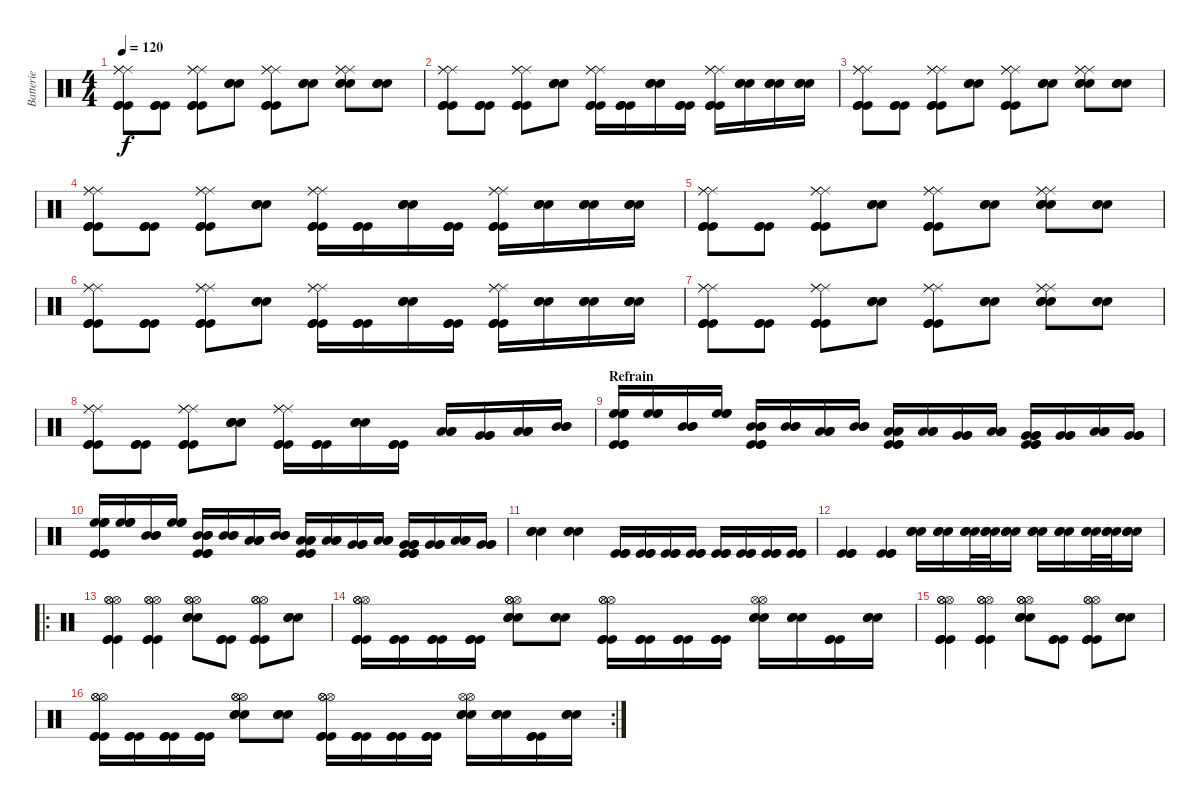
\track ("Batterie" "Batterie") {instrument percussion}
\staff {score}
\articulation defaults
\ts (4 4)
\tempo 120
\clef neutral
\ks c
("Ride (middle)" "Ride (middle)" "Ride (middle)" "Kick (hit)" "Kick (hit)" "Kick (hit)").8{dy f} ("Kick (hit)" "Kick (hit)" "Kick (hit)").8 ("Ride (middle)" "Kick (hit)" "Kick (hit)" "Kick (hit)" "Ride (middle)" "Ride (middle)").8 ("Snare (hit) 2" "Snare (hit) 2" "Snare (hit) 2").8 ("Kick (hit)" "Kick (hit)" "Kick (hit)" "Ride (middle)" "Ride (middle)" "Ride (middle)").8 ("Snare (hit) 2" "Snare (hit) 2" "Snare (hit) 2").8 ("Ride (middle)" "Ride (middle)" "Ride (middle)" "Snare (hit) 2" "Snare (hit) 2" "Snare (hit) 2").8 ("Snare (hit) 2" "Snare (hit) 2" "Snare (hit) 2").8 |
("Ride (middle)" "Ride (middle)" "Ride (middle)" "Kick (hit)" "Kick (hit)" "Kick (hit)").8 ("Kick (hit)" "Kick (hit)" "Kick (hit)").8 ("Ride (middle)" "Kick (hit)" "Kick (hit)" "Kick (hit)" "Ride (middle)" "Ride (middle)").8 ("Snare (hit) 2" "Snare (hit) 2" "Snare (hit) 2").8 ("Kick (hit)" "Kick (hit)" "Kick (hit)" "Ride (middle)" "Ride (middle)" "Ride (middle)").16 ("Kick (hit)" "Kick (hit)" "Kick (hit)").16 ("Snare (hit) 2" "Snare (hit) 2" "Snare (hit) 2").16 ("Kick (hit)" "Kick (hit)" "Kick (hit)").16 ("Ride (middle)" "Ride (middle)" "Ride (middle)" "Kick (hit)" "Kick (hit)" "Kick (hit)").16 ("Snare (hit) 2" "Snare (hit) 2" "Snare (hit) 2").16 ("Snare (hit) 2" "Snare (hit) 2" "Snare (hit) 2").16 ("Snare (hit) 2" "Snare (hit) 2" "Snare (hit) 2").16 |
("Ride (middle)" "Ride (middle)" "Ride (middle)" "Kick (hit)" "Kick (hit)" "Kick (hit)").8 ("Kick (hit)" "Kick (hit)" "Kick (hit)").8 ("Ride (middle)" "Kick (hit)" "Kick (hit)" "Kick (hit)" "Ride (middle)" "Ride (middle)").8 ("Snare (hit) 2" "Snare (hit) 2" "Snare (hit) 2").8 ("Kick (hit)" "Kick (hit)" "Kick (hit)" "Ride (middle)" "Ride (middle)" "Ride (middle)").8 ("Snare (hit) 2" "Snare (hit) 2" "Snare (hit) 2").8 ("Ride (middle)" "Ride (middle)" "Ride (middle)" "Snare (hit) 2" "Snare (hit) 2" "Snare (hit) 2").8 ("Snare (hit) 2" "Snare (hit) 2" "Snare (hit) 2").8 |
("Ride (middle)" "Ride (middle)" "Ride (middle)" "Kick (hit)" "Kick (hit)" "Kick (hit)").8 ("Kick (hit)" "Kick (hit)" "Kick (hit)").8 ("Ride (middle)" "Kick (hit)" "Kick (hit)" "Kick (hit)" "Ride (middle)" "Ride (middle)").8 ("Snare (hit) 2" "Snare (hit) 2" "Snare (hit) 2").8 ("Kick (hit)" "Kick (hit)" "Kick (hit)" "Ride (middle)" "Ride (middle)" "Ride (middle)").16 ("Kick (hit)" "Kick (hit)" "Kick (hit)").16 ("Snare (hit) 2" "Snare (hit) 2" "Snare (hit) 2").16 ("Kick (hit)" "Kick (hit)" "Kick (hit)").16 ("Ride (middle)" "Ride (middle)" "Ride (middle)" "Kick (hit)" "Kick (hit)" "Kick (hit)").16 ("Snare (hit) 2" "Snare (hit) 2" "Snare (hit) 2").16 ("Snare (hit) 2" "Snare (hit) 2" "Snare (hit) 2").16 ("Snare (hit) 2" "Snare (hit) 2" "Snare (hit) 2").16 |
("Ride (middle)" "Ride (middle)" "Ride (middle)" "Kick (hit)" "Kick (hit)" "Kick (hit)").8 ("Kick (hit)" "Kick (hit)" "Kick (hit)").8 ("Ride (middle)" "Kick (hit)" "Kick (hit)" "Kick (hit)" "Ride (middle)" "Ride (middle)").8 ("Snare (hit) 2" "Snare (hit) 2" "Snare (hit) 2").8 ("Kick (hit)" "Kick (hit)" "Kick (hit)" "Ride (middle)" "Ride (middle)" "Ride (middle)").8 ("Snare (hit) 2" "Snare (hit) 2" "Snare (hit) 2").8 ("Ride (middle)" "Ride (middle)" "Ride (middle)" "Snare (hit) 2" "Snare (hit) 2" "Snare (hit) 2").8 ("Snare (hit) 2" "Snare (hit) 2" "Snare (hit) 2").8 |
("Ride (middle)" "Ride (middle)" "Ride (middle)" "Kick (hit)" "Kick (hit)" "Kick (hit)").8 ("Kick (hit)" "Kick (hit)" "Kick (hit)").8 ("Ride (middle)" "Kick (hit)" "Kick (hit)" "Kick (hit)" "Ride (middle)" "Ride (middle)").8 ("Snare (hit) 2" "Snare (hit) 2" "Snare (hit) 2").8 ("Kick (hit)" "Kick (hit)" "Kick (hit)" "Ride (middle)" "Ride (middle)" "Ride (middle)").16 ("Kick (hit)" "Kick (hit)" "Kick (hit)").16 ("Snare (hit) 2" "Snare (hit) 2" "Snare (hit) 2").16 ("Kick (hit)" "Kick (hit)" "Kick (hit)").16 ("Ride (middle)" "Ride (middle)" "Ride (middle)" "Kick (hit)" "Kick (hit)" "Kick (hit)").16 ("Snare (hit) 2" "Snare (hit) 2" "Snare (hit) 2").16 ("Snare (hit) 2" "Snare (hit) 2" "Snare (hit) 2").16 ("Snare (hit) 2" "Snare (hit) 2" "Snare (hit) 2").16 |
("Ride (middle)" "Ride (middle)" "Ride (middle)" "Kick (hit)" "Kick (hit)" "Kick (hit)").8 ("Kick (hit)" "Kick (hit)" "Kick (hit)").8 ("Ride (middle)" "Kick (hit)" "Kick (hit)" "Kick (hit)" "Ride (middle)" "Ride (middle)").8 ("Snare (hit) 2" "Snare (hit) 2" "Snare (hit) 2").8 ("Kick (hit)" "Kick (hit)" "Kick (hit)" "Ride (middle)" "Ride (middle)" "Ride (middle)").8 ("Snare (hit) 2" "Snare (hit) 2" "Snare (hit) 2").8 ("Ride (middle)" "Ride (middle)" "Ride (middle)" "Snare (hit) 2" "Snare (hit) 2" "Snare (hit) 2").8 ("Snare (hit) 2" "Snare (hit) 2" "Snare (hit) 2").8 |
("Ride (middle)" "Ride (middle)" "Ride (middle)" "Kick (hit)" "Kick (hit)" "Kick (hit)").8 ("Kick (hit)" "Kick (hit)" "Kick (hit)").8 ("Ride (middle)" "Kick (hit)" "Kick (hit)" "Kick (hit)" "Ride (middle)" "Ride (middle)").8 ("Snare (hit) 2" "Snare (hit) 2" "Snare (hit) 2").8 ("Kick (hit)" "Kick (hit)" "Kick (hit)" "Ride (middle)" "Ride (middle)" "Ride (middle)").16 ("Kick (hit)" "Kick (hit)" "Kick (hit)").16 ("Snare (hit) 2" "Snare (hit) 2" "Snare (hit) 2").16 ("Kick (hit)" "Kick (hit)" "Kick (hit)").16 ("Low Floor Tom (hit)" "Low Floor Tom (hit)" "Low Floor Tom (hit)").16 ("Very Low Tom (hit)" "Very Low Tom (hit)" "Very Low Tom (hit)").16 ("Low Tom (hit)" "Low Tom (hit)" "Low Tom (hit)").16 ("Mid Tom (hit)" "Mid Tom (hit)" "Mid Tom (hit)").16 |
\section ("" "Refrain")
("Kick (hit)" "Kick (hit)" "Kick (hit)" "High Floor Tom (hit)" "High Floor Tom (hit)" "High Floor Tom (hit)").16 ("High Floor Tom (hit)" "High Floor Tom (hit)" "High Floor Tom (hit)").16 ("Mid Tom (hit)" "Mid Tom (hit)" "Mid Tom (hit)").16 ("High Floor Tom (hit)" "High Floor Tom (hit)" "High Floor Tom (hit)").16 ("Mid Tom (hit)" "Mid Tom (hit)" "Kick (hit)" "Kick (hit)" "Kick (hit)" "Mid Tom (hit)").16 ("Mid Tom (hit)" "Mid Tom (hit)" "Mid Tom (hit)").16 ("Low Tom (hit)" "Low Tom (hit)" "Low Tom (hit)").16 ("Mid Tom (hit)" "Mid Tom (hit)" "Mid Tom (hit)").16 ("Low Tom (hit)" "Low Tom (hit)" "Low Tom (hit)" "Kick (hit)" "Kick (hit)" "Kick (hit)").16 ("Low Tom (hit)" "Low Tom (hit)" "Low Tom (hit)").16 ("Very Low Tom (hit)" "Very Low Tom (hit)" "Very Low Tom (hit)").16 ("Low Tom (hit)" "Low Tom (hit)" "Low Tom (hit)").16 ("Very Low Tom (hit)" "Very Low Tom (hit)" "Very Low Tom (hit)" "Kick (hit)" "Kick (hit)" "Kick (hit)").16 ("Very Low Tom (hit)" "Very Low Tom (hit)" "Very Low Tom (hit)").16 ("Low Floor Tom (hit)" "Low Floor Tom (hit)" "Low Floor Tom (hit)").16 ("Very Low Tom (hit)" "Very Low Tom (hit)" "Very Low Tom (hit)").16 |
("Kick (hit)" "Kick (hit)" "Kick (hit)" "High Floor Tom (hit)" "High Floor Tom (hit)" "High Floor Tom (hit)").16 ("High Floor Tom (hit)" "High Floor Tom (hit)" "High Floor Tom (hit)").16 ("Mid Tom (hit)" "Mid Tom (hit)" "Mid Tom (hit)").16 ("High Floor Tom (hit)" "High Floor Tom (hit)" "High Floor Tom (hit)").16 ("Mid Tom (hit)" "Mid Tom (hit)" "Kick (hit)" "Kick (hit)" "Kick (hit)" "Mid Tom (hit)").16 ("Mid Tom (hit)" "Mid Tom (hit)" "Mid Tom (hit)").16 ("Low Tom (hit)" "Low Tom (hit)" "Low Tom (hit)").16 ("Mid Tom (hit)" "Mid Tom (hit)" "Mid Tom (hit)").16 ("Low Tom (hit)" "Low Tom (hit)" "Low Tom (hit)" "Kick (hit)" "Kick (hit)" "Kick (hit)").16 ("Low Tom (hit)" "Low Tom (hit)" "Low Tom (hit)").16 ("Very Low Tom (hit)" "Very Low Tom (hit)" "Very Low Tom (hit)").16 ("Low Tom (hit)" "Low Tom (hit)" "Low Tom (hit)").16 ("Very Low Tom (hit)" "Very Low Tom (hit)" "Very Low Tom (hit)" "Kick (hit)" "Kick (hit)" "Kick (hit)").16 ("Very Low Tom (hit)" "Very Low Tom (hit)" "Very Low Tom (hit)").16 ("Low Floor Tom (hit)" "Low Floor Tom (hit)" "Low Floor Tom (hit)").16 ("Very Low Tom (hit)" "Very Low Tom (hit)" "Very Low Tom (hit)").16 |
("Snare (hit) 2" "Snare (hit) 2" "Snare (hit) 2").4 ("Snare (hit) 2" "Snare (hit) 2" "Snare (hit) 2").4 ("Kick (hit)" "Kick (hit)" "Kick (hit)").16 ("Kick (hit)" "Kick (hit)" "Kick (hit)").16 ("Kick (hit)" "Kick (hit)" "Kick (hit)").16 ("Kick (hit)" "Kick (hit)" "Kick (hit)").16 ("Kick (hit)" "Kick (hit)" "Kick (hit)").16 ("Kick (hit)" "Kick (hit)" "Kick (hit)").16 ("Kick (hit)" "Kick (hit)" "Kick (hit)").16 ("Kick (hit)" "Kick (hit)" "Kick (hit)").16 |
("Kick (hit)" "Kick (hit)" "Kick (hit)").4 ("Kick (hit)" "Kick (hit)" "Kick (hit)").4 ("Snare (hit) 2" "Snare (hit) 2" "Snare (hit) 2").16 ("Snare (hit) 2" "Snare (hit) 2" "Snare (hit) 2").16 ("Snare (hit) 2" "Snare (hit) 2" "Snare (hit) 2").32 ("Snare (hit) 2" "Snare (hit) 2" "Snare (hit) 2").32 ("Snare (hit) 2" "Snare (hit) 2" "Snare (hit) 2").16 ("Snare (hit) 2" "Snare (hit) 2" "Snare (hit) 2").16 ("Snare (hit) 2" "Snare (hit) 2" "Snare (hit) 2").16 ("Snare (hit) 2" "Snare (hit) 2" "Snare (hit) 2").32 ("Snare (hit) 2" "Snare (hit) 2" "Snare (hit) 2").32 ("Snare (hit) 2" "Snare (hit) 2" "Snare (hit) 2").16 |
\ro
("Hi-Hat (open)" "Hi-Hat (open)" "Hi-Hat (open)" "Kick (hit)" "Kick (hit)" "Kick (hit)").4 ("Hi-Hat (open)" "Hi-Hat (open)" "Hi-Hat (open)" "Kick (hit)" "Kick (hit)" "Kick (hit)").4 ("Hi-Hat (open)" "Hi-Hat (open)" "Hi-Hat (open)" "Snare (hit) 2" "Snare (hit) 2" "Snare (hit) 2").8 ("Kick (hit)" "Kick (hit)" "Kick (hit)").8 ("Hi-Hat (open)" "Hi-Hat (open)" "Hi-Hat (open)" "Kick (hit)" "Kick (hit)" "Kick (hit)").8 ("Snare (hit) 2" "Snare (hit) 2" "Snare (hit) 2").8 |
("Hi-Hat (open)" "Hi-Hat (open)" "Hi-Hat (open)" "Kick (hit)" "Kick (hit)" "Kick (hit)").16 ("Kick (hit)" "Kick (hit)" "Kick (hit)").16 ("Kick (hit)" "Kick (hit)" "Kick (hit)").16 ("Kick (hit)" "Kick (hit)" "Kick (hit)").16 ("Hi-Hat (open)" "Snare (hit) 2" "Snare (hit) 2" "Snare (hit) 2" "Hi-Hat (open)" "Hi-Hat (open)").8 ("Snare (hit) 2" "Snare (hit) 2" "Snare (hit) 2").8 ("Hi-Hat (open)" "Hi-Hat (open)" "Hi-Hat (open)" "Kick (hit)" "Kick (hit)" "Kick (hit)").16 ("Kick (hit)" "Kick (hit)" "Kick (hit)").16 ("Kick (hit)" "Kick (hit)" "Kick (hit)").16 ("Kick (hit)" "Kick (hit)" "Kick (hit)").16 ("Hi-Hat (open)" "Hi-Hat (open)" "Snare (hit) 2" "Snare (hit) 2" "Snare (hit) 2").16 ("Snare (hit) 2" "Snare (hit) 2" "Snare (hit) 2").16 ("Kick (hit)" "Kick (hit)" "Kick (hit)").16 ("Snare (hit) 2" "Snare (hit) 2" "Snare (hit) 2").16 |
("Hi-Hat (open)" "Hi-Hat (open)" "Hi-Hat (open)" "Kick (hit)" "Kick (hit)" "Kick (hit)").4 ("Hi-Hat (open)" "Hi-Hat (open)" "Hi-Hat (open)" "Kick (hit)" "Kick (hit)" "Kick (hit)").4 ("Hi-Hat (open)" "Hi-Hat (open)" "Hi-Hat (open)" "Snare (hit) 2" "Snare (hit) 2" "Snare (hit) 2").8 ("Kick (hit)" "Kick (hit)" "Kick (hit)").8 ("Hi-Hat (open)" "Hi-Hat (open)" "Hi-Hat (open)" "Kick (hit)" "Kick (hit)" "Kick (hit)").8 ("Snare (hit) 2" "Snare (hit) 2" "Snare (hit) 2").8 |
\rc 2
("Hi-Hat (open)" "Hi-Hat (open)" "Hi-Hat (open)" "Kick (hit)" "Kick (hit)" "Kick (hit)").16 ("Kick (hit)" "Kick (hit)" "Kick (hit)").16 ("Kick (hit)" "Kick (hit)" "Kick (hit)").16 ("Kick (hit)" "Kick (hit)" "Kick (hit)").16 ("Hi-Hat (open)" "Snare (hit) 2" "Snare (hit) 2" "Snare (hit) 2" "Hi-Hat (open)" "Hi-Hat (open)").8 ("Snare (hit) 2" "Snare (hit) 2" "Snare (hit) 2").8 ("Hi-Hat (open)" "Hi-Hat (open)" "Hi-Hat (open)" "Kick (hit)" "Kick (hit)" "Kick (hit)").16 ("Kick (hit)" "Kick (hit)" "Kick (hit)").16 ("Kick (hit)" "Kick (hit)" "Kick (hit)").16 ("Kick (hit)" "Kick (hit)" "Kick (hit)").16 ("Hi-Hat (open)" "Hi-Hat (open)" "Snare (hit) 2" "Snare (hit) 2" "Snare (hit) 2").16 ("Snare (hit) 2" "Snare (hit) 2" "Snare (hit) 2").16 ("Kick (hit)" "Kick (hit)" "Kick (hit)").16 ("Snare (hit) 2" "Snare (hit) 2" "Snare (hit) 2").16
